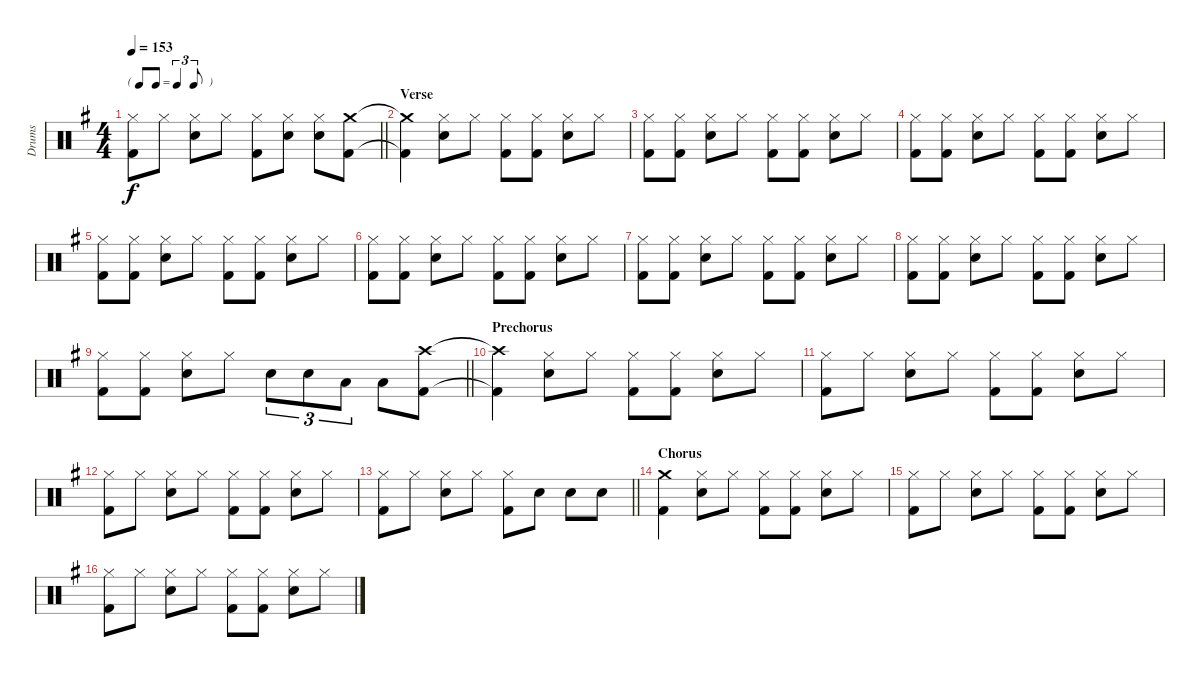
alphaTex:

\track ("Drums" "Drums") {instrument percussion}
\staff {score}
\articulation defaults
\ts (4 4)
\tf triplet8th
\tempo 153
\clef neutral
\barLineRight lightlight
\ks g
("Hi-Hat (closed)" "Kick (hit) 2").8{dy f} "Hi-Hat (closed)".8 ("Hi-Hat (closed)" "Electric Snare (hit)").8 "Hi-Hat (closed)".8 ("Hi-Hat (closed)" "Kick (hit) 2").8 ("Hi-Hat (closed)" "Electric Snare (hit)").8 ("Hi-Hat (closed)" "Electric Snare (hit)").8 ("Crash medium (hit)" "Kick (hit) 2").8 |
\section ("" "Verse")
("Crash medium (hit)"{t} "Kick (hit) 2"{t}).4 ("Hi-Hat (closed)" "Electric Snare (hit)").8 "Hi-Hat (closed)".8 ("Hi-Hat (closed)" "Kick (hit) 2").8 ("Hi-Hat (closed)" "Kick (hit) 2").8 ("Hi-Hat (closed)" "Electric Snare (hit)").8 "Hi-Hat (closed)".8 |
("Hi-Hat (closed)" "Kick (hit) 2").8 ("Hi-Hat (closed)" "Kick (hit) 2").8 ("Hi-Hat (closed)" "Electric Snare (hit)").8 "Hi-Hat (closed)".8 ("Hi-Hat (closed)" "Kick (hit) 2").8 ("Hi-Hat (closed)" "Kick (hit) 2").8 ("Hi-Hat (closed)" "Electric Snare (hit)").8 "Hi-Hat (closed)".8 |
("Hi-Hat (closed)" "Kick (hit) 2").8 ("Hi-Hat (closed)" "Kick (hit) 2").8 ("Hi-Hat (closed)" "Electric Snare (hit)").8 "Hi-Hat (closed)".8 ("Hi-Hat (closed)" "Kick (hit) 2").8 ("Hi-Hat (closed)" "Kick (hit) 2").8 ("Hi-Hat (closed)" "Electric Snare (hit)").8 "Hi-Hat (closed)".8 |
("Hi-Hat (closed)" "Kick (hit) 2").8 ("Hi-Hat (closed)" "Kick (hit) 2").8 ("Hi-Hat (closed)" "Electric Snare (hit)").8 "Hi-Hat (closed)".8 ("Hi-Hat (closed)" "Kick (hit) 2").8 ("Hi-Hat (closed)" "Kick (hit) 2").8 ("Hi-Hat (closed)" "Electric Snare (hit)").8 "Hi-Hat (closed)".8 |
("Hi-Hat (closed)" "Kick (hit) 2").8 ("Hi-Hat (closed)" "Kick (hit) 2").8 ("Hi-Hat (closed)" "Electric Snare (hit)").8 "Hi-Hat (closed)".8 ("Hi-Hat (closed)" "Kick (hit) 2").8 ("Hi-Hat (closed)" "Kick (hit) 2").8 ("Hi-Hat (closed)" "Electric Snare (hit)").8 "Hi-Hat (closed)".8 |
("Hi-Hat (closed)" "Kick (hit) 2").8 ("Hi-Hat (closed)" "Kick (hit) 2").8 ("Hi-Hat (closed)" "Electric Snare (hit)").8 "Hi-Hat (closed)".8 ("Hi-Hat (closed)" "Kick (hit) 2").8 ("Hi-Hat (closed)" "Kick (hit) 2").8 ("Hi-Hat (closed)" "Electric Snare (hit)").8 "Hi-Hat (closed)".8 |
("Hi-Hat (closed)" "Kick (hit) 2").8 ("Hi-Hat (closed)" "Kick (hit) 2").8 ("Hi-Hat (closed)" "Electric Snare (hit)").8 "Hi-Hat (closed)".8 ("Hi-Hat (closed)" "Kick (hit) 2").8 ("Hi-Hat (closed)" "Kick (hit) 2").8 ("Hi-Hat (closed)" "Electric Snare (hit)").8 "Hi-Hat (closed)".8 |
\barLineRight lightlight
("Hi-Hat (closed)" "Kick (hit) 2").8 ("Hi-Hat (closed)" "Kick (hit) 2").8 ("Hi-Hat (closed)" "Electric Snare (hit)").8 "Hi-Hat (closed)".8 "Electric Snare (hit)".8{tu (3 2)} "Electric Snare (hit)".8{tu (3 2)} "Low Tom (hit)".8{tu (3 2)} "Low Tom (hit)".8 ("Crash high (hit)" "Kick (hit) 2").8 |
\section ("" "Prechorus")
("Crash high (hit)"{t} "Kick (hit) 2"{t}).4 ("Hi-Hat (closed)" "Electric Snare (hit)").8 "Hi-Hat (closed)".8 ("Hi-Hat (closed)" "Kick (hit) 2").8 ("Hi-Hat (closed)" "Kick (hit) 2").8 ("Hi-Hat (closed)" "Electric Snare (hit)").8 "Hi-Hat (closed)".8 |
("Hi-Hat (closed)" "Kick (hit) 2").8 "Hi-Hat (closed)".8 ("Hi-Hat (closed)" "Electric Snare (hit)").8 "Hi-Hat (closed)".8 ("Hi-Hat (closed)" "Kick (hit) 2").8 ("Hi-Hat (closed)" "Kick (hit) 2").8 ("Hi-Hat (closed)" "Electric Snare (hit)").8 "Hi-Hat (closed)".8 |
("Hi-Hat (closed)" "Kick (hit) 2").8 "Hi-Hat (closed)".8 ("Hi-Hat (closed)" "Electric Snare (hit)").8 "Hi-Hat (closed)".8 ("Hi-Hat (closed)" "Kick (hit) 2").8 ("Hi-Hat (closed)" "Kick (hit) 2").8 ("Hi-Hat (closed)" "Electric Snare (hit)").8 "Hi-Hat (closed)".8 |
\barLineRight lightlight
("Hi-Hat (closed)" "Kick (hit) 2").8 "Hi-Hat (closed)".8 ("Hi-Hat (closed)" "Electric Snare (hit)").8 "Hi-Hat (closed)".8 ("Hi-Hat (closed)" "Kick (hit) 2").8 "Electric Snare (hit)".8 "Electric Snare (hit)".8 "Electric Snare (hit)".8 |
\section ("" "Chorus")
("Crash medium (hit)" "Kick (hit) 2").4 ("Hi-Hat (closed)" "Electric Snare (hit)").8 "Hi-Hat (closed)".8 ("Hi-Hat (closed)" "Kick (hit) 2").8 ("Hi-Hat (closed)" "Kick (hit) 2").8 ("Hi-Hat (closed)" "Electric Snare (hit)").8 "Hi-Hat (closed)".8 |
("Hi-Hat (closed)" "Kick (hit) 2").8 "Hi-Hat (closed)".8 ("Hi-Hat (closed)" "Electric Snare (hit)").8 "Hi-Hat (closed)".8 ("Hi-Hat (closed)" "Kick (hit) 2").8 ("Hi-Hat (closed)" "Kick (hit) 2").8 ("Hi-Hat (closed)" "Electric Snare (hit)").8 "Hi-Hat (closed)".8 |
("Hi-Hat (closed)" "Kick (hit) 2").8 "Hi-Hat (closed)".8 ("Hi-Hat (closed)" "Electric Snare (hit)").8 "Hi-Hat (closed)".8 ("Hi-Hat (closed)" "Kick (hit) 2").8 ("Hi-Hat (closed)" "Kick (hit) 2").8 ("Hi-Hat (closed)" "Electric Snare (hit)").8 "Hi-Hat (closed)".8
